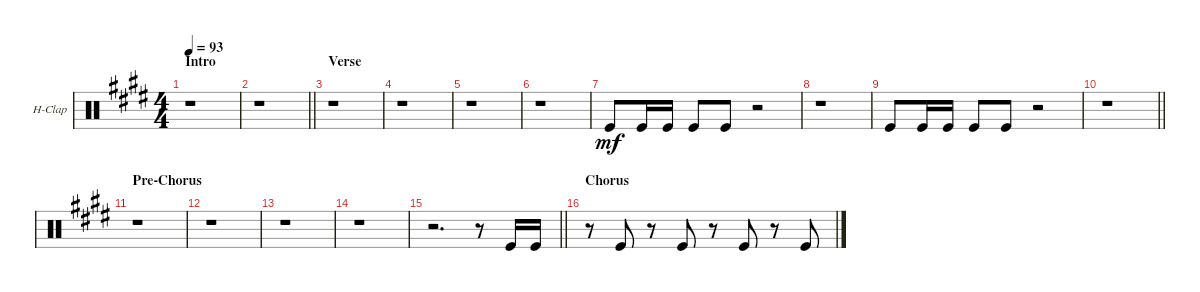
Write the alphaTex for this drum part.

\defaultSystemsLayout 4
\bracketExtendMode groupsimilarinstruments
\firstSystemTrackNameOrientation horizontal
\otherSystemsTrackNameOrientation horizontal
\track ("Hand Clap" "H-Clap") {instrument percussion}
\staff {score}
\articulation defaults
\ts (4 4)
\section ("" "Intro")
\tempo 93
\clef neutral
\ks e
r.1{dy mf} |
\barLineRight lightlight
r.1 |
\section ("" "Verse")
r.1 |
r.1 |
r.1 |
r.1 |
"Kick (hit)".8 "Kick (hit)".16 "Kick (hit)".16 "Kick (hit)".8 "Kick (hit)".8 r.2 |
r.1 |
"Kick (hit)".8 "Kick (hit)".16 "Kick (hit)".16 "Kick (hit)".8 "Kick (hit)".8 r.2 |
\barLineRight lightlight
r.1 |
\section ("" "Pre-Chorus")
r.1 |
r.1 |
r.1 |
r.1 |
\barLineRight lightlight
r.2{d} r.8 "Kick (hit)".16 "Kick (hit)".16 |
\section ("" "Chorus")
r.8 "Kick (hit)".8 r.8 "Kick (hit)".8 r.8 "Kick (hit)".8 r.8 "Kick (hit)".8
